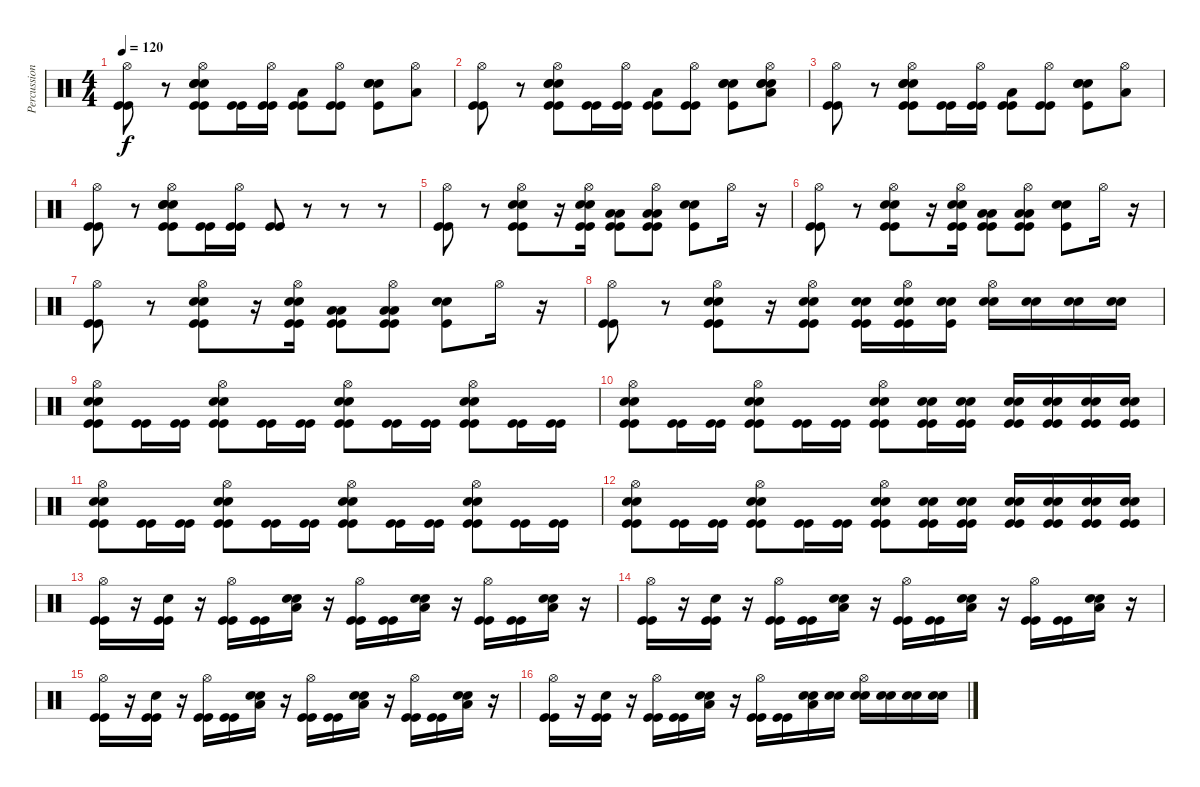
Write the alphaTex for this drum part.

\track ("Percussion" "Percussion") {instrument percussion}
\staff {score}
\articulation defaults
\ts (4 4)
\tempo 120
\clef neutral
\ks c
("Hi-Hat (open)" "Kick (hit)" "Kick (hit)").8{dy f} r.8 ("Hi-Hat (open)" "Kick (hit)" "Kick (hit)" "Electric Snare (hit)" "Electric Snare (hit)" "Electric Snare (hit)").8 ("Kick (hit)" "Kick (hit)").16 ("Hi-Hat (open)" "Kick (hit)" "Kick (hit)").16 ("Kick (hit)" "Kick (hit)" "Low Tom (hit)").8 ("Hi-Hat (open)" "Kick (hit)" "Kick (hit)").8 ("Kick (hit)" "Electric Snare (hit)" "Electric Snare (hit)" "Electric Snare (hit)").8 ("Hi-Hat (open)" "Low Tom (hit)").8 |
("Hi-Hat (open)" "Kick (hit)" "Kick (hit)").8 r.8 ("Hi-Hat (open)" "Kick (hit)" "Kick (hit)" "Electric Snare (hit)" "Electric Snare (hit)" "Electric Snare (hit)").8 ("Kick (hit)" "Kick (hit)").16 ("Hi-Hat (open)" "Kick (hit)" "Kick (hit)").16 ("Kick (hit)" "Kick (hit)" "Low Tom (hit)").8 ("Hi-Hat (open)" "Kick (hit)" "Kick (hit)").8 ("Kick (hit)" "Electric Snare (hit)" "Electric Snare (hit)" "Electric Snare (hit)").8 ("Hi-Hat (open)" "Low Tom (hit)" "Electric Snare (hit)" "Electric Snare (hit)" "Electric Snare (hit)").8 |
("Hi-Hat (open)" "Kick (hit)" "Kick (hit)").8 r.8 ("Hi-Hat (open)" "Kick (hit)" "Kick (hit)" "Electric Snare (hit)" "Electric Snare (hit)" "Electric Snare (hit)").8 ("Kick (hit)" "Kick (hit)").16 ("Hi-Hat (open)" "Kick (hit)" "Kick (hit)").16 ("Kick (hit)" "Kick (hit)" "Low Tom (hit)").8 ("Hi-Hat (open)" "Kick (hit)" "Kick (hit)").8 ("Kick (hit)" "Electric Snare (hit)" "Electric Snare (hit)" "Electric Snare (hit)").8 ("Hi-Hat (open)" "Low Tom (hit)").8 |
("Hi-Hat (open)" "Kick (hit)" "Kick (hit)").8 r.8 ("Hi-Hat (open)" "Kick (hit)" "Kick (hit)" "Electric Snare (hit)" "Electric Snare (hit)" "Electric Snare (hit)").8 ("Kick (hit)" "Kick (hit)").16 ("Hi-Hat (open)" "Kick (hit)" "Kick (hit)").16 ("Kick (hit)" "Kick (hit)").8 r.8 r.8 r.8 |
("Hi-Hat (open)" "Kick (hit)" "Kick (hit)").8 r.8 ("Hi-Hat (open)" "Kick (hit)" "Kick (hit)" "Electric Snare (hit)" "Electric Snare (hit)").8 r.16 ("Hi-Hat (open)" "Kick (hit)" "Kick (hit)" "Electric Snare (hit)" "Electric Snare (hit)").16 ("Kick (hit)" "Kick (hit)" "Low Tom (hit)" "Low Tom (hit)").8 ("Hi-Hat (open)" "Kick (hit)" "Kick (hit)" "Low Tom (hit)" "Low Tom (hit)").8 ("Kick (hit)" "Electric Snare (hit)" "Electric Snare (hit)").8 "Hi-Hat (open)".16 r.16 |
("Hi-Hat (open)" "Kick (hit)" "Kick (hit)").8 r.8 ("Hi-Hat (open)" "Kick (hit)" "Kick (hit)" "Electric Snare (hit)" "Electric Snare (hit)").8 r.16 ("Hi-Hat (open)" "Kick (hit)" "Kick (hit)" "Electric Snare (hit)" "Electric Snare (hit)").16 ("Kick (hit)" "Kick (hit)" "Low Tom (hit)" "Low Tom (hit)").8 ("Hi-Hat (open)" "Kick (hit)" "Kick (hit)" "Low Tom (hit)" "Low Tom (hit)").8 ("Kick (hit)" "Electric Snare (hit)" "Electric Snare (hit)").8 "Hi-Hat (open)".16 r.16 |
("Hi-Hat (open)" "Kick (hit)" "Kick (hit)").8 r.8 ("Hi-Hat (open)" "Kick (hit)" "Kick (hit)" "Electric Snare (hit)" "Electric Snare (hit)").8 r.16 ("Hi-Hat (open)" "Kick (hit)" "Kick (hit)" "Electric Snare (hit)" "Electric Snare (hit)").16 ("Kick (hit)" "Kick (hit)" "Low Tom (hit)" "Low Tom (hit)").8 ("Hi-Hat (open)" "Kick (hit)" "Kick (hit)" "Low Tom (hit)" "Low Tom (hit)").8 ("Kick (hit)" "Electric Snare (hit)" "Electric Snare (hit)").8 "Hi-Hat (open)".16 r.16 |
("Hi-Hat (open)" "Kick (hit)" "Kick (hit)").8 r.8 ("Hi-Hat (open)" "Kick (hit)" "Kick (hit)" "Electric Snare (hit)" "Electric Snare (hit)").8 r.16 ("Hi-Hat (open)" "Kick (hit)" "Kick (hit)" "Electric Snare (hit)" "Electric Snare (hit)").8 ("Kick (hit)" "Kick (hit)" "Electric Snare (hit)" "Electric Snare (hit)").16 ("Hi-Hat (open)" "Kick (hit)" "Kick (hit)" "Electric Snare (hit)" "Electric Snare (hit)").16 ("Kick (hit)" "Electric Snare (hit)" "Electric Snare (hit)").16 ("Hi-Hat (open)" "Electric Snare (hit)" "Electric Snare (hit)").16 ("Electric Snare (hit)" "Electric Snare (hit)").16 ("Electric Snare (hit)" "Electric Snare (hit)").16 ("Electric Snare (hit)" "Electric Snare (hit)").16 |
("Hi-Hat (open)" "Kick (hit)" "Kick (hit)" "Electric Snare (hit)" "Electric Snare (hit)").8 ("Kick (hit)" "Kick (hit)").16 ("Kick (hit)" "Kick (hit)").16 ("Hi-Hat (open)" "Kick (hit)" "Kick (hit)" "Electric Snare (hit)" "Electric Snare (hit)").8 ("Kick (hit)" "Kick (hit)").16 ("Kick (hit)" "Kick (hit)").16 ("Hi-Hat (open)" "Kick (hit)" "Kick (hit)" "Electric Snare (hit)" "Electric Snare (hit)").8 ("Kick (hit)" "Kick (hit)").16 ("Kick (hit)" "Kick (hit)").16 ("Hi-Hat (open)" "Kick (hit)" "Kick (hit)" "Electric Snare (hit)" "Electric Snare (hit)").8 ("Kick (hit)" "Kick (hit)").16 ("Kick (hit)" "Kick (hit)").16 |
("Hi-Hat (open)" "Kick (hit)" "Kick (hit)" "Electric Snare (hit)" "Electric Snare (hit)").8 ("Kick (hit)" "Kick (hit)").16 ("Kick (hit)" "Kick (hit)").16 ("Hi-Hat (open)" "Kick (hit)" "Kick (hit)" "Electric Snare (hit)" "Electric Snare (hit)").8 ("Kick (hit)" "Kick (hit)").16 ("Kick (hit)" "Kick (hit)").16 ("Hi-Hat (open)" "Kick (hit)" "Kick (hit)" "Electric Snare (hit)" "Electric Snare (hit)").8 ("Kick (hit)" "Kick (hit)" "Electric Snare (hit)" "Electric Snare (hit)").16 ("Kick (hit)" "Kick (hit)" "Electric Snare (hit)" "Electric Snare (hit)").16 ("Kick (hit)" "Kick (hit)" "Electric Snare (hit)" "Electric Snare (hit)").16 ("Kick (hit)" "Kick (hit)" "Electric Snare (hit)" "Electric Snare (hit)").16 ("Kick (hit)" "Kick (hit)" "Electric Snare (hit)" "Electric Snare (hit)").16 ("Kick (hit)" "Kick (hit)" "Electric Snare (hit)" "Electric Snare (hit)").16 |
("Hi-Hat (open)" "Kick (hit)" "Kick (hit)" "Electric Snare (hit)" "Electric Snare (hit)").8 ("Kick (hit)" "Kick (hit)").16 ("Kick (hit)" "Kick (hit)").16 ("Hi-Hat (open)" "Kick (hit)" "Kick (hit)" "Electric Snare (hit)" "Electric Snare (hit)").8 ("Kick (hit)" "Kick (hit)").16 ("Kick (hit)" "Kick (hit)").16 ("Hi-Hat (open)" "Kick (hit)" "Kick (hit)" "Electric Snare (hit)" "Electric Snare (hit)").8 ("Kick (hit)" "Kick (hit)").16 ("Kick (hit)" "Kick (hit)").16 ("Hi-Hat (open)" "Kick (hit)" "Kick (hit)" "Electric Snare (hit)" "Electric Snare (hit)").8 ("Kick (hit)" "Kick (hit)").16 ("Kick (hit)" "Kick (hit)").16 |
("Hi-Hat (open)" "Kick (hit)" "Kick (hit)" "Electric Snare (hit)" "Electric Snare (hit)").8 ("Kick (hit)" "Kick (hit)").16 ("Kick (hit)" "Kick (hit)").16 ("Hi-Hat (open)" "Kick (hit)" "Kick (hit)" "Electric Snare (hit)" "Electric Snare (hit)").8 ("Kick (hit)" "Kick (hit)").16 ("Kick (hit)" "Kick (hit)").16 ("Hi-Hat (open)" "Kick (hit)" "Kick (hit)" "Electric Snare (hit)" "Electric Snare (hit)").8 ("Kick (hit)" "Kick (hit)" "Electric Snare (hit)" "Electric Snare (hit)").16 ("Kick (hit)" "Kick (hit)" "Electric Snare (hit)" "Electric Snare (hit)").16 ("Kick (hit)" "Kick (hit)" "Electric Snare (hit)" "Electric Snare (hit)").16 ("Kick (hit)" "Kick (hit)" "Electric Snare (hit)" "Electric Snare (hit)").16 ("Kick (hit)" "Kick (hit)" "Electric Snare (hit)" "Electric Snare (hit)").16 ("Kick (hit)" "Kick (hit)" "Electric Snare (hit)" "Electric Snare (hit)").16 |
("Hi-Hat (open)" "Kick (hit)" "Kick (hit)").16 r.16 ("Kick (hit)" "Kick (hit)" "Electric Snare (hit)").16 r.16 ("Hi-Hat (open)" "Kick (hit)" "Kick (hit)").16 ("Kick (hit)" "Kick (hit)").16 ("Low Tom (hit)" "Electric Snare (hit)" "Electric Snare (hit)").16 r.16 ("Hi-Hat (open)" "Kick (hit)" "Kick (hit)").16 ("Kick (hit)" "Kick (hit)").16 ("Low Tom (hit)" "Electric Snare (hit)" "Electric Snare (hit)").16 r.16 ("Hi-Hat (open)" "Kick (hit)" "Kick (hit)").16 ("Kick (hit)" "Kick (hit)").16 ("Low Tom (hit)" "Electric Snare (hit)" "Electric Snare (hit)").16 r.16 |
("Hi-Hat (open)" "Kick (hit)" "Kick (hit)").16 r.16 ("Kick (hit)" "Kick (hit)" "Electric Snare (hit)").16 r.16 ("Hi-Hat (open)" "Kick (hit)" "Kick (hit)").16 ("Kick (hit)" "Kick (hit)").16 ("Low Tom (hit)" "Electric Snare (hit)" "Electric Snare (hit)").16 r.16 ("Hi-Hat (open)" "Kick (hit)" "Kick (hit)").16 ("Kick (hit)" "Kick (hit)").16 ("Low Tom (hit)" "Electric Snare (hit)" "Electric Snare (hit)").16 r.16 ("Hi-Hat (open)" "Kick (hit)" "Kick (hit)").16 ("Kick (hit)" "Kick (hit)").16 ("Low Tom (hit)" "Electric Snare (hit)" "Electric Snare (hit)").16 r.16 |
("Hi-Hat (open)" "Kick (hit)" "Kick (hit)").16 r.16 ("Kick (hit)" "Kick (hit)" "Electric Snare (hit)").16 r.16 ("Hi-Hat (open)" "Kick (hit)" "Kick (hit)").16 ("Kick (hit)" "Kick (hit)").16 ("Low Tom (hit)" "Electric Snare (hit)" "Electric Snare (hit)").16 r.16 ("Hi-Hat (open)" "Kick (hit)" "Kick (hit)").16 ("Kick (hit)" "Kick (hit)").16 ("Low Tom (hit)" "Electric Snare (hit)" "Electric Snare (hit)").16 r.16 ("Hi-Hat (open)" "Kick (hit)" "Kick (hit)").16 ("Kick (hit)" "Kick (hit)").16 ("Low Tom (hit)" "Electric Snare (hit)" "Electric Snare (hit)").16 r.16 |
("Hi-Hat (open)" "Kick (hit)" "Kick (hit)").16 r.16 ("Kick (hit)" "Kick (hit)" "Electric Snare (hit)").16 r.16 ("Hi-Hat (open)" "Kick (hit)" "Kick (hit)").16 ("Kick (hit)" "Kick (hit)").16 ("Low Tom (hit)" "Electric Snare (hit)" "Electric Snare (hit)").16 r.16 ("Hi-Hat (open)" "Kick (hit)" "Kick (hit)").16 ("Kick (hit)" "Kick (hit)").16 ("Low Tom (hit)" "Electric Snare (hit)" "Electric Snare (hit)").16 ("Electric Snare (hit)" "Electric Snare (hit)").16 ("Hi-Hat (open)" "Electric Snare (hit)" "Electric Snare (hit)").16 ("Electric Snare (hit)" "Electric Snare (hit)").16 ("Electric Snare (hit)" "Electric Snare (hit)").16 ("Electric Snare (hit)" "Electric Snare (hit)").16
